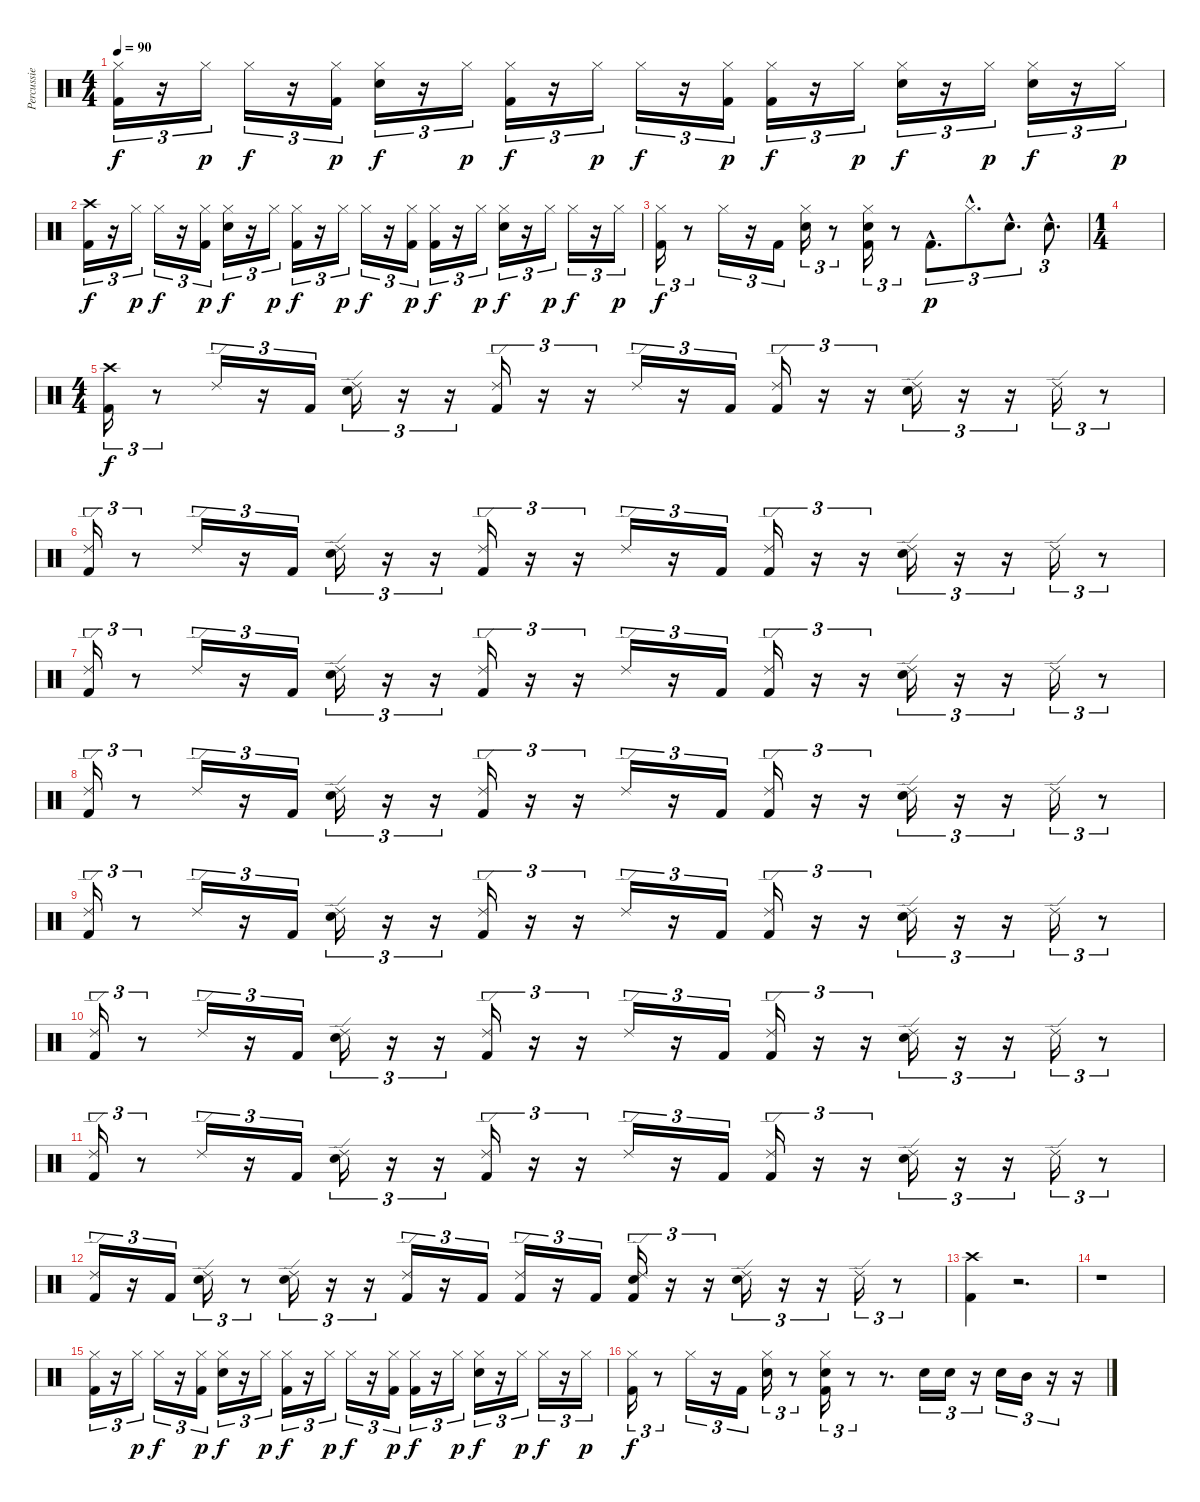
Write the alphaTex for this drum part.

\track ("Percussie" "Percussie") {instrument percussion}
\staff {score}
\articulation defaults
\ts (4 4)
\tempo 90
\clef neutral
\ks c
("Hi-Hat (closed)" "Kick (hit) 2").16{tu (3 2) dy f} r.16{tu (3 2)} "Hi-Hat (closed)".16{tu (3 2) dy p} "Hi-Hat (closed)".16{tu (3 2) dy f} r.16{tu (3 2)} ("Hi-Hat (closed)" "Kick (hit) 2").16{tu (3 2) dy p} ("Hi-Hat (closed)" "Electric Snare (hit)").16{tu (3 2) dy f} r.16{tu (3 2)} "Hi-Hat (closed)".16{tu (3 2) dy p} ("Hi-Hat (closed)" "Kick (hit) 2").16{tu (3 2) dy f} r.16{tu (3 2)} "Hi-Hat (closed)".16{tu (3 2) dy p} "Hi-Hat (closed)".16{tu (3 2) dy f} r.16{tu (3 2)} ("Hi-Hat (closed)" "Kick (hit) 2").16{tu (3 2) dy p} ("Hi-Hat (closed)" "Kick (hit) 2").16{tu (3 2) dy f} r.16{tu (3 2)} "Hi-Hat (closed)".16{tu (3 2) dy p} ("Hi-Hat (closed)" "Electric Snare (hit)").16{tu (3 2) dy f} r.16{tu (3 2)} "Hi-Hat (closed)".16{tu (3 2) dy p} ("Hi-Hat (closed)" "Electric Snare (hit)").16{tu (3 2) dy f} r.16{tu (3 2)} "Hi-Hat (closed)".16{tu (3 2) dy p} |
("Crash high (hit)" "Kick (hit) 2").16{tu (3 2) dy f} r.16{tu (3 2)} "Hi-Hat (closed)".16{tu (3 2) dy p} "Hi-Hat (closed)".16{tu (3 2) dy f} r.16{tu (3 2)} ("Hi-Hat (closed)" "Kick (hit) 2").16{tu (3 2) dy p} ("Hi-Hat (closed)" "Electric Snare (hit)").16{tu (3 2) dy f} r.16{tu (3 2)} "Hi-Hat (closed)".16{tu (3 2) dy p} ("Hi-Hat (closed)" "Kick (hit) 2").16{tu (3 2) dy f} r.16{tu (3 2)} "Hi-Hat (closed)".16{tu (3 2) dy p} "Hi-Hat (closed)".16{tu (3 2) dy f} r.16{tu (3 2)} ("Hi-Hat (closed)" "Kick (hit) 2").16{tu (3 2) dy p} ("Hi-Hat (closed)" "Kick (hit) 2").16{tu (3 2) dy f} r.16{tu (3 2)} "Hi-Hat (closed)".16{tu (3 2) dy p} ("Hi-Hat (closed)" "Electric Snare (hit)").16{tu (3 2) dy f} r.16{tu (3 2)} "Hi-Hat (closed)".16{tu (3 2) dy p} "Hi-Hat (closed)".16{tu (3 2) dy f} r.16{tu (3 2)} "Hi-Hat (closed)".16{tu (3 2) dy p} |
("Hi-Hat (closed)" "Kick (hit) 2").16{tu (3 2) dy f} r.8{tu (3 2)} "Hi-Hat (closed)".16{tu (3 2)} r.16{tu (3 2)} "Kick (hit) 2".16{tu (3 2)} ("Hi-Hat (closed)" "Electric Snare (hit)").16{tu (3 2)} r.8{tu (3 2)} ("Hi-Hat (closed)" "Electric Snare (hit)" "Kick (hit) 2").16{tu (3 2)} r.8{tu (3 2)} "Kick (hit) 2"{hac}.8{d tu (3 2) dy p} "Hi-Hat (closed)"{hac}.8{d tu (3 2)} "Electric Snare (hit)"{hac}.8{d tu (3 2)} "Electric Snare (hit)"{hac}.8{d tu (3 2)} |
\ts (1 4)
|
\ts (4 4)
("Crash high (hit)" "Kick (hit) 2").16{tu (3 2) dy f} r.8{tu (3 2)} "Ride (edge) 2".16{tu (3 2)} r.16{tu (3 2)} "Kick (hit) 2".16{tu (3 2)} ("Ride (edge) 2" "Electric Snare (hit)").16{tu (3 2)} r.16{tu (3 2)} r.16{tu (3 2)} ("Ride (edge) 2" "Kick (hit) 2").16{tu (3 2)} r.16{tu (3 2)} r.16{tu (3 2)} "Ride (edge) 2".16{tu (3 2)} r.16{tu (3 2)} "Kick (hit) 2".16{tu (3 2)} ("Ride (edge) 2" "Kick (hit) 2").16{tu (3 2)} r.16{tu (3 2)} r.16{tu (3 2)} ("Ride (edge) 2" "Electric Snare (hit)").16{tu (3 2)} r.16{tu (3 2)} r.16{tu (3 2)} "Ride (edge) 2".16{tu (3 2)} r.8{tu (3 2)} |
("Ride (edge) 2" "Kick (hit) 2").16{tu (3 2)} r.8{tu (3 2)} "Ride (edge) 2".16{tu (3 2)} r.16{tu (3 2)} "Kick (hit) 2".16{tu (3 2)} ("Ride (edge) 2" "Electric Snare (hit)").16{tu (3 2)} r.16{tu (3 2)} r.16{tu (3 2)} ("Ride (edge) 2" "Kick (hit) 2").16{tu (3 2)} r.16{tu (3 2)} r.16{tu (3 2)} "Ride (edge) 2".16{tu (3 2)} r.16{tu (3 2)} "Kick (hit) 2".16{tu (3 2)} ("Ride (edge) 2" "Kick (hit) 2").16{tu (3 2)} r.16{tu (3 2)} r.16{tu (3 2)} ("Ride (edge) 2" "Electric Snare (hit)").16{tu (3 2)} r.16{tu (3 2)} r.16{tu (3 2)} "Ride (edge) 2".16{tu (3 2)} r.8{tu (3 2)} |
("Ride (edge) 2" "Kick (hit) 2").16{tu (3 2)} r.8{tu (3 2)} "Ride (edge) 2".16{tu (3 2)} r.16{tu (3 2)} "Kick (hit) 2".16{tu (3 2)} ("Ride (edge) 2" "Electric Snare (hit)").16{tu (3 2)} r.16{tu (3 2)} r.16{tu (3 2)} ("Ride (edge) 2" "Kick (hit) 2").16{tu (3 2)} r.16{tu (3 2)} r.16{tu (3 2)} "Ride (edge) 2".16{tu (3 2)} r.16{tu (3 2)} "Kick (hit) 2".16{tu (3 2)} ("Ride (edge) 2" "Kick (hit) 2").16{tu (3 2)} r.16{tu (3 2)} r.16{tu (3 2)} ("Ride (edge) 2" "Electric Snare (hit)").16{tu (3 2)} r.16{tu (3 2)} r.16{tu (3 2)} "Ride (edge) 2".16{tu (3 2)} r.8{tu (3 2)} |
("Ride (edge) 2" "Kick (hit) 2").16{tu (3 2)} r.8{tu (3 2)} "Ride (edge) 2".16{tu (3 2)} r.16{tu (3 2)} "Kick (hit) 2".16{tu (3 2)} ("Ride (edge) 2" "Electric Snare (hit)").16{tu (3 2)} r.16{tu (3 2)} r.16{tu (3 2)} ("Ride (edge) 2" "Kick (hit) 2").16{tu (3 2)} r.16{tu (3 2)} r.16{tu (3 2)} "Ride (edge) 2".16{tu (3 2)} r.16{tu (3 2)} "Kick (hit) 2".16{tu (3 2)} ("Ride (edge) 2" "Kick (hit) 2").16{tu (3 2)} r.16{tu (3 2)} r.16{tu (3 2)} ("Ride (edge) 2" "Electric Snare (hit)").16{tu (3 2)} r.16{tu (3 2)} r.16{tu (3 2)} "Ride (edge) 2".16{tu (3 2)} r.8{tu (3 2)} |
("Ride (edge) 2" "Kick (hit) 2").16{tu (3 2)} r.8{tu (3 2)} "Ride (edge) 2".16{tu (3 2)} r.16{tu (3 2)} "Kick (hit) 2".16{tu (3 2)} ("Ride (edge) 2" "Electric Snare (hit)").16{tu (3 2)} r.16{tu (3 2)} r.16{tu (3 2)} ("Ride (edge) 2" "Kick (hit) 2").16{tu (3 2)} r.16{tu (3 2)} r.16{tu (3 2)} "Ride (edge) 2".16{tu (3 2)} r.16{tu (3 2)} "Kick (hit) 2".16{tu (3 2)} ("Ride (edge) 2" "Kick (hit) 2").16{tu (3 2)} r.16{tu (3 2)} r.16{tu (3 2)} ("Ride (edge) 2" "Electric Snare (hit)").16{tu (3 2)} r.16{tu (3 2)} r.16{tu (3 2)} "Ride (edge) 2".16{tu (3 2)} r.8{tu (3 2)} |
("Ride (edge) 2" "Kick (hit) 2").16{tu (3 2)} r.8{tu (3 2)} "Ride (edge) 2".16{tu (3 2)} r.16{tu (3 2)} "Kick (hit) 2".16{tu (3 2)} ("Ride (edge) 2" "Electric Snare (hit)").16{tu (3 2)} r.16{tu (3 2)} r.16{tu (3 2)} ("Ride (edge) 2" "Kick (hit) 2").16{tu (3 2)} r.16{tu (3 2)} r.16{tu (3 2)} "Ride (edge) 2".16{tu (3 2)} r.16{tu (3 2)} "Kick (hit) 2".16{tu (3 2)} ("Ride (edge) 2" "Kick (hit) 2").16{tu (3 2)} r.16{tu (3 2)} r.16{tu (3 2)} ("Ride (edge) 2" "Electric Snare (hit)").16{tu (3 2)} r.16{tu (3 2)} r.16{tu (3 2)} "Ride (edge) 2".16{tu (3 2)} r.8{tu (3 2)} |
("Ride (edge) 2" "Kick (hit) 2").16{tu (3 2)} r.8{tu (3 2)} "Ride (edge) 2".16{tu (3 2)} r.16{tu (3 2)} "Kick (hit) 2".16{tu (3 2)} ("Ride (edge) 2" "Electric Snare (hit)").16{tu (3 2)} r.16{tu (3 2)} r.16{tu (3 2)} ("Ride (edge) 2" "Kick (hit) 2").16{tu (3 2)} r.16{tu (3 2)} r.16{tu (3 2)} "Ride (edge) 2".16{tu (3 2)} r.16{tu (3 2)} "Kick (hit) 2".16{tu (3 2)} ("Ride (edge) 2" "Kick (hit) 2").16{tu (3 2)} r.16{tu (3 2)} r.16{tu (3 2)} ("Ride (edge) 2" "Electric Snare (hit)").16{tu (3 2)} r.16{tu (3 2)} r.16{tu (3 2)} "Ride (edge) 2".16{tu (3 2)} r.8{tu (3 2)} |
("Ride (edge) 2" "Kick (hit) 2").16{tu (3 2)} r.16{tu (3 2)} "Kick (hit) 2".16{tu (3 2)} ("Ride (edge) 2" "Electric Snare (hit)").16{tu (3 2)} r.8{tu (3 2)} ("Ride (edge) 2" "Electric Snare (hit)").16{tu (3 2)} r.16{tu (3 2)} r.16{tu (3 2)} ("Ride (edge) 2" "Kick (hit) 2").16{tu (3 2)} r.16{tu (3 2)} "Kick (hit) 2".16{tu (3 2)} ("Ride (edge) 2" "Kick (hit) 2").16{tu (3 2)} r.16{tu (3 2)} "Kick (hit) 2".16{tu (3 2)} ("Ride (edge) 2" "Electric Snare (hit)" "Kick (hit) 2").16{tu (3 2)} r.16{tu (3 2)} r.16{tu (3 2)} ("Ride (edge) 2" "Electric Snare (hit)").16{tu (3 2)} r.16{tu (3 2)} r.16{tu (3 2)} "Ride (edge) 2".16{tu (3 2)} r.8{tu (3 2)} |
("Crash high (hit)" "Kick (hit) 2").4 r.2{d} |
r.1 |
("Hi-Hat (closed)" "Kick (hit) 2").16{tu (3 2)} r.16{tu (3 2)} "Hi-Hat (closed)".16{tu (3 2) dy p} "Hi-Hat (closed)".16{tu (3 2) dy f} r.16{tu (3 2)} ("Hi-Hat (closed)" "Kick (hit) 2").16{tu (3 2) dy p} ("Hi-Hat (closed)" "Electric Snare (hit)").16{tu (3 2) dy f} r.16{tu (3 2)} "Hi-Hat (closed)".16{tu (3 2) dy p} ("Hi-Hat (closed)" "Kick (hit) 2").16{tu (3 2) dy f} r.16{tu (3 2)} "Hi-Hat (closed)".16{tu (3 2) dy p} "Hi-Hat (closed)".16{tu (3 2) dy f} r.16{tu (3 2)} ("Hi-Hat (closed)" "Kick (hit) 2").16{tu (3 2) dy p} ("Hi-Hat (closed)" "Kick (hit) 2").16{tu (3 2) dy f} r.16{tu (3 2)} "Hi-Hat (closed)".16{tu (3 2) dy p} ("Hi-Hat (closed)" "Electric Snare (hit)").16{tu (3 2) dy f} r.16{tu (3 2)} "Hi-Hat (closed)".16{tu (3 2) dy p} "Hi-Hat (closed)".16{tu (3 2) dy f} r.16{tu (3 2)} "Hi-Hat (closed)".16{tu (3 2) dy p} |
("Hi-Hat (closed)" "Kick (hit) 2").16{tu (3 2) dy f} r.8{tu (3 2)} "Hi-Hat (closed)".16{tu (3 2)} r.16{tu (3 2)} "Kick (hit) 2".16{tu (3 2)} ("Hi-Hat (closed)" "Electric Snare (hit)").16{tu (3 2)} r.8{tu (3 2)} ("Hi-Hat (closed)" "Electric Snare (hit)" "Kick (hit) 2").16{tu (3 2)} r.8{tu (3 2)} r.8{d} "Electric Snare (hit)".16{tu (3 2)} "Electric Snare (hit)".16{tu (3 2)} r.16{tu (3 2)} "Electric Snare (hit)".16{tu (3 2)} "Mid Tom (hit)".16{tu (3 2)} r.16{tu (3 2)} r.16
